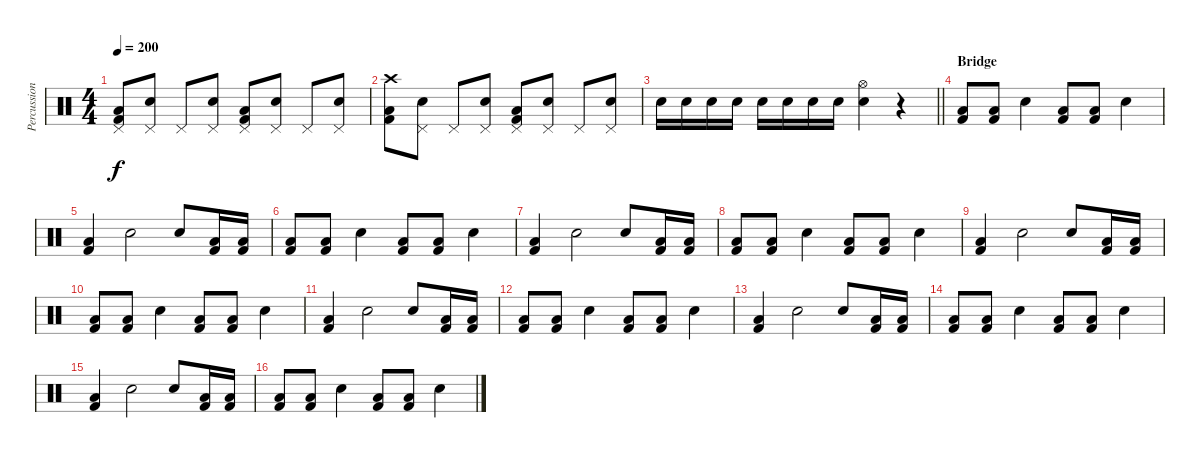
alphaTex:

\track ("Percussion" "Percussion") {instrument percussion}
\staff {score}
\articulation defaults
\ts (4 4)
\tempo 200
\clef neutral
\ks c
("Kick (hit) 2" "Low Floor Tom (hit)" "Pedal Hi-Hat (hit)").8{dy f} ("Electric Snare (hit)" "Pedal Hi-Hat (hit)").8 "Pedal Hi-Hat (hit)".8 ("Electric Snare (hit)" "Pedal Hi-Hat (hit)").8 ("Kick (hit) 2" "Low Floor Tom (hit)" "Pedal Hi-Hat (hit)").8 ("Electric Snare (hit)" "Pedal Hi-Hat (hit)").8 "Pedal Hi-Hat (hit)".8 ("Electric Snare (hit)" "Pedal Hi-Hat (hit)").8 |
("Kick (hit) 2" "Low Floor Tom (hit)" "Crash high (hit)").8 ("Electric Snare (hit)" "Pedal Hi-Hat (hit)").8 "Pedal Hi-Hat (hit)".8 ("Electric Snare (hit)" "Pedal Hi-Hat (hit)").8 ("Kick (hit) 2" "Low Floor Tom (hit)" "Pedal Hi-Hat (hit)").8 ("Electric Snare (hit)" "Pedal Hi-Hat (hit)").8 "Pedal Hi-Hat (hit)".8 ("Electric Snare (hit)" "Pedal Hi-Hat (hit)").8 |
\barLineRight lightlight "Electric Snare (hit)".16 "Electric Snare (hit)".16 "Electric Snare (hit)".16 "Electric Snare (hit)".16 "Electric Snare (hit)".16 "Electric Snare (hit)".16 "Electric Snare (hit)".16 "Electric Snare (hit)".16
("Electric Snare (hit)" "Hi-Hat (open)").4 r.4 |
\section ("" "Bridge")
("Kick (hit) 2" "Low Floor Tom (hit)").8 ("Kick (hit) 2" "Low Floor Tom (hit)").8 "Electric Snare (hit)".4 ("Kick (hit) 2" "Low Floor Tom (hit)").8 ("Kick (hit) 2" "Low Floor Tom (hit)").8 "Electric Snare (hit)".4 |
("Kick (hit) 2" "Low Floor Tom (hit)").4 "Electric Snare (hit)".2 "Electric Snare (hit)".8 ("Kick (hit) 2" "Low Floor Tom (hit)").16 ("Kick (hit) 2" "Low Floor Tom (hit)").16 |
("Kick (hit) 2" "Low Floor Tom (hit)").8 ("Kick (hit) 2" "Low Floor Tom (hit)").8 "Electric Snare (hit)".4 ("Kick (hit) 2" "Low Floor Tom (hit)").8 ("Kick (hit) 2" "Low Floor Tom (hit)").8 "Electric Snare (hit)".4 |
("Kick (hit) 2" "Low Floor Tom (hit)").4 "Electric Snare (hit)".2 "Electric Snare (hit)".8 ("Kick (hit) 2" "Low Floor Tom (hit)").16 ("Kick (hit) 2" "Low Floor Tom (hit)").16 |
("Kick (hit) 2" "Low Floor Tom (hit)").8 ("Kick (hit) 2" "Low Floor Tom (hit)").8 "Electric Snare (hit)".4 ("Kick (hit) 2" "Low Floor Tom (hit)").8 ("Kick (hit) 2" "Low Floor Tom (hit)").8 "Electric Snare (hit)".4 |
("Kick (hit) 2" "Low Floor Tom (hit)").4 "Electric Snare (hit)".2 "Electric Snare (hit)".8 ("Kick (hit) 2" "Low Floor Tom (hit)").16 ("Kick (hit) 2" "Low Floor Tom (hit)").16 |
("Kick (hit) 2" "Low Floor Tom (hit)").8 ("Kick (hit) 2" "Low Floor Tom (hit)").8 "Electric Snare (hit)".4 ("Kick (hit) 2" "Low Floor Tom (hit)").8 ("Kick (hit) 2" "Low Floor Tom (hit)").8 "Electric Snare (hit)".4 |
("Kick (hit) 2" "Low Floor Tom (hit)").4 "Electric Snare (hit)".2 "Electric Snare (hit)".8 ("Kick (hit) 2" "Low Floor Tom (hit)").16 ("Kick (hit) 2" "Low Floor Tom (hit)").16 |
("Kick (hit) 2" "Low Floor Tom (hit)").8 ("Kick (hit) 2" "Low Floor Tom (hit)").8 "Electric Snare (hit)".4 ("Kick (hit) 2" "Low Floor Tom (hit)").8 ("Kick (hit) 2" "Low Floor Tom (hit)").8 "Electric Snare (hit)".4 |
("Kick (hit) 2" "Low Floor Tom (hit)").4 "Electric Snare (hit)".2 "Electric Snare (hit)".8 ("Kick (hit) 2" "Low Floor Tom (hit)").16 ("Kick (hit) 2" "Low Floor Tom (hit)").16 |
("Kick (hit) 2" "Low Floor Tom (hit)").8 ("Kick (hit) 2" "Low Floor Tom (hit)").8 "Electric Snare (hit)".4 ("Kick (hit) 2" "Low Floor Tom (hit)").8 ("Kick (hit) 2" "Low Floor Tom (hit)").8 "Electric Snare (hit)".4 |
("Kick (hit) 2" "Low Floor Tom (hit)").4 "Electric Snare (hit)".2 "Electric Snare (hit)".8 ("Kick (hit) 2" "Low Floor Tom (hit)").16 ("Kick (hit) 2" "Low Floor Tom (hit)").16 |
("Kick (hit) 2" "Low Floor Tom (hit)").8 ("Kick (hit) 2" "Low Floor Tom (hit)").8 "Electric Snare (hit)".4 ("Kick (hit) 2" "Low Floor Tom (hit)").8 ("Kick (hit) 2" "Low Floor Tom (hit)").8 "Electric Snare (hit)".4
